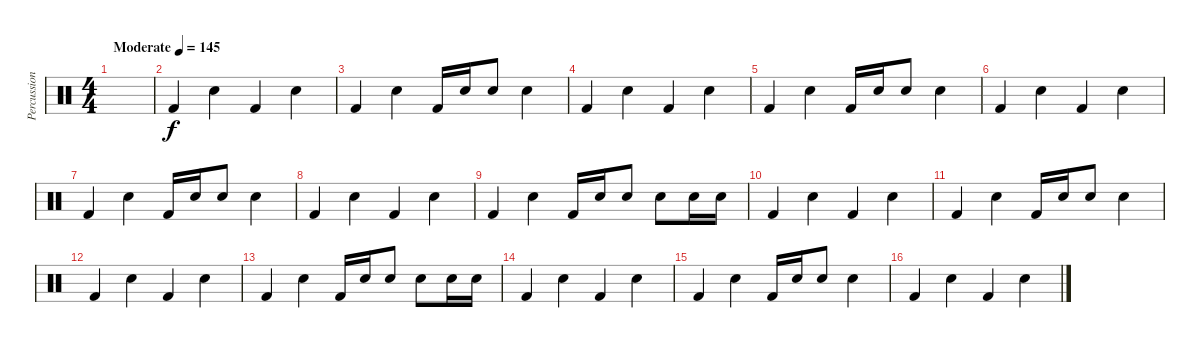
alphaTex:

\track ("Percussion" "Percussion") {instrument percussion}
\staff {score}
\articulation defaults
\ts (4 4)
\tempo (145 "Moderate")
\clef neutral
\ks c
|
"Kick (hit) 2".4 "Electric Snare (hit)".4 "Kick (hit) 2".4 "Electric Snare (hit)".4 |
"Kick (hit) 2".4 "Electric Snare (hit)".4 "Kick (hit) 2".16 "Electric Snare (hit)".16 "Electric Snare (hit)".8 "Electric Snare (hit)".4 |
"Kick (hit) 2".4 "Electric Snare (hit)".4 "Kick (hit) 2".4 "Electric Snare (hit)".4 |
"Kick (hit) 2".4 "Electric Snare (hit)".4 "Kick (hit) 2".16 "Electric Snare (hit)".16 "Electric Snare (hit)".8 "Electric Snare (hit)".4 |
"Kick (hit) 2".4 "Electric Snare (hit)".4 "Kick (hit) 2".4 "Electric Snare (hit)".4 |
"Kick (hit) 2".4 "Electric Snare (hit)".4 "Kick (hit) 2".16 "Electric Snare (hit)".16 "Electric Snare (hit)".8 "Electric Snare (hit)".4 |
"Kick (hit) 2".4 "Electric Snare (hit)".4 "Kick (hit) 2".4 "Electric Snare (hit)".4 |
"Kick (hit) 2".4 "Electric Snare (hit)".4 "Kick (hit) 2".16 "Electric Snare (hit)".16 "Electric Snare (hit)".8 "Electric Snare (hit)".8 "Electric Snare (hit)".16 "Electric Snare (hit)".16 |
"Kick (hit) 2".4 "Electric Snare (hit)".4 "Kick (hit) 2".4 "Electric Snare (hit)".4 |
"Kick (hit) 2".4 "Electric Snare (hit)".4 "Kick (hit) 2".16 "Electric Snare (hit)".16 "Electric Snare (hit)".8 "Electric Snare (hit)".4 |
"Kick (hit) 2".4 "Electric Snare (hit)".4 "Kick (hit) 2".4 "Electric Snare (hit)".4 |
"Kick (hit) 2".4 "Electric Snare (hit)".4 "Kick (hit) 2".16 "Electric Snare (hit)".16 "Electric Snare (hit)".8 "Electric Snare (hit)".8 "Electric Snare (hit)".16 "Electric Snare (hit)".16 |
"Kick (hit) 2".4 "Electric Snare (hit)".4 "Kick (hit) 2".4 "Electric Snare (hit)".4 |
"Kick (hit) 2".4 "Electric Snare (hit)".4 "Kick (hit) 2".16 "Electric Snare (hit)".16 "Electric Snare (hit)".8 "Electric Snare (hit)".4 |
"Kick (hit) 2".4 "Electric Snare (hit)".4 "Kick (hit) 2".4 "Electric Snare (hit)".4
